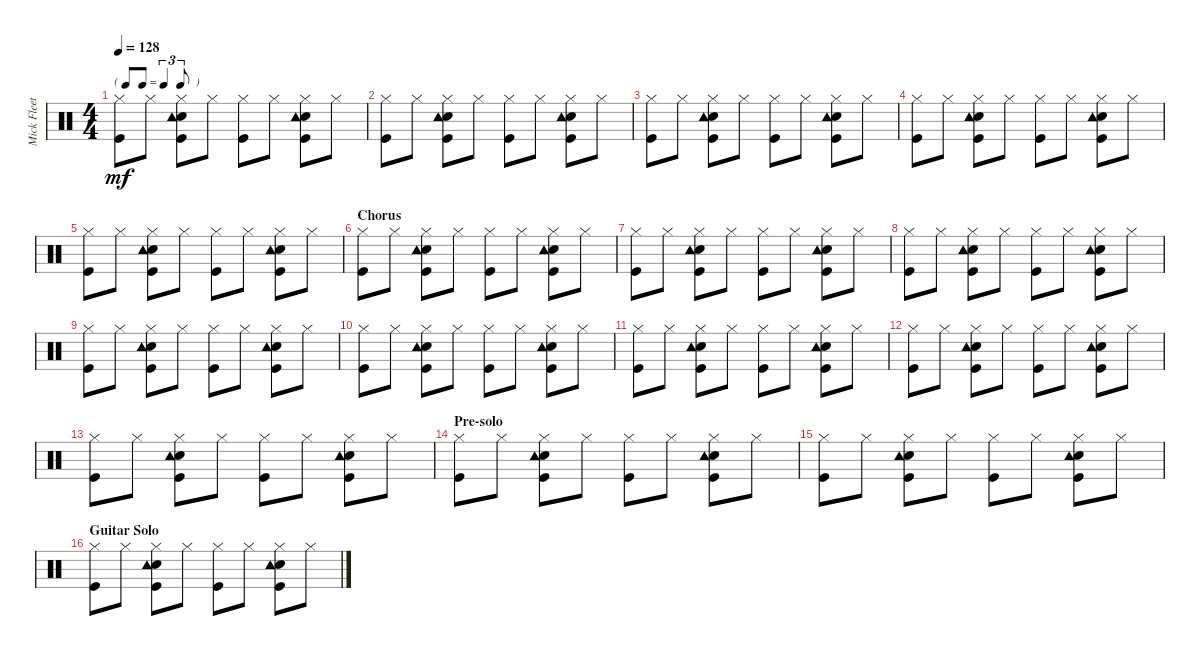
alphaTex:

\track ("Mick Fleetwood - Drums" "Mick Fleet") {instrument percussion}
\staff {score}
\articulation defaults
\ts (4 4)
\tf triplet8th
\tempo 128
\clef neutral
\ks c
("Kick (hit)" "Hi-Hat (closed)").8{dy mf} "Hi-Hat (closed)".8 ("Kick (hit)" "Snare (hit) 2" "Hi-Hat (closed)" "Tambourine (hit)").8 "Hi-Hat (closed)".8 ("Kick (hit)" "Hi-Hat (closed)").8 "Hi-Hat (closed)".8 ("Kick (hit)" "Snare (hit) 2" "Hi-Hat (closed)" "Tambourine (hit)").8 "Hi-Hat (closed)".8 |
("Kick (hit)" "Hi-Hat (closed)").8 "Hi-Hat (closed)".8 ("Kick (hit)" "Snare (hit) 2" "Hi-Hat (closed)" "Tambourine (hit)").8 "Hi-Hat (closed)".8 ("Kick (hit)" "Hi-Hat (closed)").8 "Hi-Hat (closed)".8 ("Kick (hit)" "Snare (hit) 2" "Hi-Hat (closed)" "Tambourine (hit)").8 "Hi-Hat (closed)".8 |
("Kick (hit)" "Hi-Hat (closed)").8 "Hi-Hat (closed)".8 ("Kick (hit)" "Snare (hit) 2" "Hi-Hat (closed)" "Tambourine (hit)").8 "Hi-Hat (closed)".8 ("Kick (hit)" "Hi-Hat (closed)").8 "Hi-Hat (closed)".8 ("Kick (hit)" "Snare (hit) 2" "Hi-Hat (closed)" "Tambourine (hit)").8 "Hi-Hat (closed)".8 |
("Kick (hit)" "Hi-Hat (closed)").8 "Hi-Hat (closed)".8 ("Kick (hit)" "Snare (hit) 2" "Hi-Hat (closed)" "Tambourine (hit)").8 "Hi-Hat (closed)".8 ("Kick (hit)" "Hi-Hat (closed)").8 "Hi-Hat (closed)".8 ("Kick (hit)" "Snare (hit) 2" "Hi-Hat (closed)" "Tambourine (hit)").8 "Hi-Hat (closed)".8 |
("Kick (hit)" "Hi-Hat (closed)").8 "Hi-Hat (closed)".8 ("Kick (hit)" "Snare (hit) 2" "Hi-Hat (closed)" "Tambourine (hit)").8 "Hi-Hat (closed)".8 ("Kick (hit)" "Hi-Hat (closed)").8 "Hi-Hat (closed)".8 ("Kick (hit)" "Snare (hit) 2" "Hi-Hat (closed)" "Tambourine (hit)").8 "Hi-Hat (closed)".8 |
\section ("" "Chorus")
("Kick (hit)" "Hi-Hat (closed)").8 "Hi-Hat (closed)".8 ("Kick (hit)" "Snare (hit) 2" "Hi-Hat (closed)" "Tambourine (hit)").8 "Hi-Hat (closed)".8 ("Kick (hit)" "Hi-Hat (closed)").8 "Hi-Hat (closed)".8 ("Kick (hit)" "Snare (hit) 2" "Hi-Hat (closed)" "Tambourine (hit)").8 "Hi-Hat (closed)".8 |
("Kick (hit)" "Hi-Hat (closed)").8 "Hi-Hat (closed)".8 ("Kick (hit)" "Snare (hit) 2" "Hi-Hat (closed)" "Tambourine (hit)").8 "Hi-Hat (closed)".8 ("Kick (hit)" "Hi-Hat (closed)").8 "Hi-Hat (closed)".8 ("Kick (hit)" "Snare (hit) 2" "Hi-Hat (closed)" "Tambourine (hit)").8 "Hi-Hat (closed)".8 |
("Kick (hit)" "Hi-Hat (closed)").8 "Hi-Hat (closed)".8 ("Kick (hit)" "Snare (hit) 2" "Hi-Hat (closed)" "Tambourine (hit)").8 "Hi-Hat (closed)".8 ("Kick (hit)" "Hi-Hat (closed)").8 "Hi-Hat (closed)".8 ("Kick (hit)" "Snare (hit) 2" "Hi-Hat (closed)" "Tambourine (hit)").8 "Hi-Hat (closed)".8 |
("Kick (hit)" "Hi-Hat (closed)").8 "Hi-Hat (closed)".8 ("Kick (hit)" "Snare (hit) 2" "Hi-Hat (closed)" "Tambourine (hit)").8 "Hi-Hat (closed)".8 ("Kick (hit)" "Hi-Hat (closed)").8 "Hi-Hat (closed)".8 ("Kick (hit)" "Snare (hit) 2" "Hi-Hat (closed)" "Tambourine (hit)").8 "Hi-Hat (closed)".8 |
("Kick (hit)" "Hi-Hat (closed)").8 "Hi-Hat (closed)".8 ("Kick (hit)" "Snare (hit) 2" "Hi-Hat (closed)" "Tambourine (hit)").8 "Hi-Hat (closed)".8 ("Kick (hit)" "Hi-Hat (closed)").8 "Hi-Hat (closed)".8 ("Kick (hit)" "Snare (hit) 2" "Hi-Hat (closed)" "Tambourine (hit)").8 "Hi-Hat (closed)".8 |
("Kick (hit)" "Hi-Hat (closed)").8 "Hi-Hat (closed)".8 ("Kick (hit)" "Snare (hit) 2" "Hi-Hat (closed)" "Tambourine (hit)").8 "Hi-Hat (closed)".8 ("Kick (hit)" "Hi-Hat (closed)").8 "Hi-Hat (closed)".8 ("Kick (hit)" "Snare (hit) 2" "Hi-Hat (closed)" "Tambourine (hit)").8 "Hi-Hat (closed)".8 |
("Kick (hit)" "Hi-Hat (closed)").8 "Hi-Hat (closed)".8 ("Kick (hit)" "Snare (hit) 2" "Hi-Hat (closed)" "Tambourine (hit)").8 "Hi-Hat (closed)".8 ("Kick (hit)" "Hi-Hat (closed)").8 "Hi-Hat (closed)".8 ("Kick (hit)" "Snare (hit) 2" "Hi-Hat (closed)" "Tambourine (hit)").8 "Hi-Hat (closed)".8 |
("Kick (hit)" "Hi-Hat (closed)").8 "Hi-Hat (closed)".8 ("Kick (hit)" "Snare (hit) 2" "Hi-Hat (closed)" "Tambourine (hit)").8 "Hi-Hat (closed)".8 ("Kick (hit)" "Hi-Hat (closed)").8 "Hi-Hat (closed)".8 ("Kick (hit)" "Snare (hit) 2" "Hi-Hat (closed)" "Tambourine (hit)").8 "Hi-Hat (closed)".8 |
\section ("" "Pre-solo")
("Kick (hit)" "Hi-Hat (closed)").8 "Hi-Hat (closed)".8 ("Kick (hit)" "Snare (hit) 2" "Hi-Hat (closed)" "Tambourine (hit)").8 "Hi-Hat (closed)".8 ("Kick (hit)" "Hi-Hat (closed)").8 "Hi-Hat (closed)".8 ("Kick (hit)" "Snare (hit) 2" "Hi-Hat (closed)" "Tambourine (hit)").8 "Hi-Hat (closed)".8 |
("Kick (hit)" "Hi-Hat (closed)").8 "Hi-Hat (closed)".8 ("Kick (hit)" "Snare (hit) 2" "Hi-Hat (closed)" "Tambourine (hit)").8 "Hi-Hat (closed)".8 ("Kick (hit)" "Hi-Hat (closed)").8 "Hi-Hat (closed)".8 ("Kick (hit)" "Snare (hit) 2" "Hi-Hat (closed)" "Tambourine (hit)").8 "Hi-Hat (closed)".8 |
\section ("" "Guitar Solo")
("Kick (hit)" "Hi-Hat (closed)").8 "Hi-Hat (closed)".8 ("Kick (hit)" "Snare (hit) 2" "Hi-Hat (closed)" "Tambourine (hit)").8 "Hi-Hat (closed)".8 ("Kick (hit)" "Hi-Hat (closed)").8 "Hi-Hat (closed)".8 ("Kick (hit)" "Snare (hit) 2" "Hi-Hat (closed)" "Tambourine (hit)").8 "Hi-Hat (closed)".8
